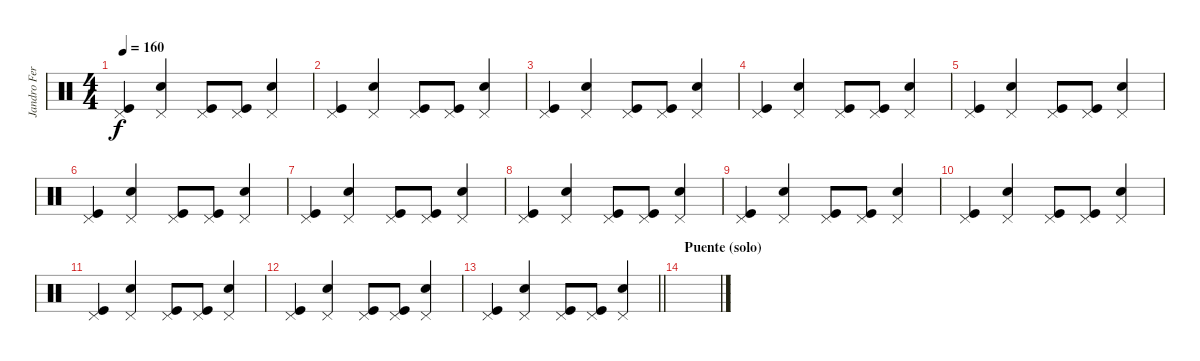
\track ("Jandro Fernández" "Jandro Fer") {instrument percussion}
\staff
\articulation defaults
\ts (4 4)
\tempo 160
\clef neutral
\ks c
("Pedal Hi-Hat (hit)" "Kick (hit)").4{dy f} ("Pedal Hi-Hat (hit)" "Snare (hit) 2").4 ("Pedal Hi-Hat (hit)" "Kick (hit)").8 ("Pedal Hi-Hat (hit)" "Kick (hit)").8 ("Pedal Hi-Hat (hit)" "Snare (hit) 2").4 |
("Pedal Hi-Hat (hit)" "Kick (hit)").4 ("Pedal Hi-Hat (hit)" "Snare (hit) 2").4 ("Pedal Hi-Hat (hit)" "Kick (hit)").8 ("Pedal Hi-Hat (hit)" "Kick (hit)").8 ("Pedal Hi-Hat (hit)" "Snare (hit) 2").4 |
("Pedal Hi-Hat (hit)" "Kick (hit)").4 ("Pedal Hi-Hat (hit)" "Snare (hit) 2").4 ("Pedal Hi-Hat (hit)" "Kick (hit)").8 ("Pedal Hi-Hat (hit)" "Kick (hit)").8 ("Pedal Hi-Hat (hit)" "Snare (hit) 2").4 |
("Pedal Hi-Hat (hit)" "Kick (hit)").4 ("Pedal Hi-Hat (hit)" "Snare (hit) 2").4 ("Pedal Hi-Hat (hit)" "Kick (hit)").8 ("Pedal Hi-Hat (hit)" "Kick (hit)").8 ("Pedal Hi-Hat (hit)" "Snare (hit) 2").4 |
("Pedal Hi-Hat (hit)" "Kick (hit)").4 ("Pedal Hi-Hat (hit)" "Snare (hit) 2").4 ("Pedal Hi-Hat (hit)" "Kick (hit)").8 ("Pedal Hi-Hat (hit)" "Kick (hit)").8 ("Pedal Hi-Hat (hit)" "Snare (hit) 2").4 |
("Pedal Hi-Hat (hit)" "Kick (hit)").4 ("Pedal Hi-Hat (hit)" "Snare (hit) 2").4 ("Pedal Hi-Hat (hit)" "Kick (hit)").8 ("Pedal Hi-Hat (hit)" "Kick (hit)").8 ("Pedal Hi-Hat (hit)" "Snare (hit) 2").4 |
("Pedal Hi-Hat (hit)" "Kick (hit)").4 ("Pedal Hi-Hat (hit)" "Snare (hit) 2").4 ("Pedal Hi-Hat (hit)" "Kick (hit)").8 ("Pedal Hi-Hat (hit)" "Kick (hit)").8 ("Pedal Hi-Hat (hit)" "Snare (hit) 2").4 |
("Pedal Hi-Hat (hit)" "Kick (hit)").4 ("Pedal Hi-Hat (hit)" "Snare (hit) 2").4 ("Pedal Hi-Hat (hit)" "Kick (hit)").8 ("Pedal Hi-Hat (hit)" "Kick (hit)").8 ("Pedal Hi-Hat (hit)" "Snare (hit) 2").4 |
("Pedal Hi-Hat (hit)" "Kick (hit)").4 ("Pedal Hi-Hat (hit)" "Snare (hit) 2").4 ("Pedal Hi-Hat (hit)" "Kick (hit)").8 ("Pedal Hi-Hat (hit)" "Kick (hit)").8 ("Pedal Hi-Hat (hit)" "Snare (hit) 2").4 |
("Pedal Hi-Hat (hit)" "Kick (hit)").4 ("Pedal Hi-Hat (hit)" "Snare (hit) 2").4 ("Pedal Hi-Hat (hit)" "Kick (hit)").8 ("Pedal Hi-Hat (hit)" "Kick (hit)").8 ("Pedal Hi-Hat (hit)" "Snare (hit) 2").4 |
("Pedal Hi-Hat (hit)" "Kick (hit)").4 ("Pedal Hi-Hat (hit)" "Snare (hit) 2").4 ("Pedal Hi-Hat (hit)" "Kick (hit)").8 ("Pedal Hi-Hat (hit)" "Kick (hit)").8 ("Pedal Hi-Hat (hit)" "Snare (hit) 2").4 |
("Pedal Hi-Hat (hit)" "Kick (hit)").4 ("Pedal Hi-Hat (hit)" "Snare (hit) 2").4 ("Pedal Hi-Hat (hit)" "Kick (hit)").8 ("Pedal Hi-Hat (hit)" "Kick (hit)").8 ("Pedal Hi-Hat (hit)" "Snare (hit) 2").4 |
\barLineRight lightlight
("Pedal Hi-Hat (hit)" "Kick (hit)").4 ("Pedal Hi-Hat (hit)" "Snare (hit) 2").4 ("Pedal Hi-Hat (hit)" "Kick (hit)").8 ("Pedal Hi-Hat (hit)" "Kick (hit)").8 ("Pedal Hi-Hat (hit)" "Snare (hit) 2").4 |
\section ("" "Puente (solo)")
